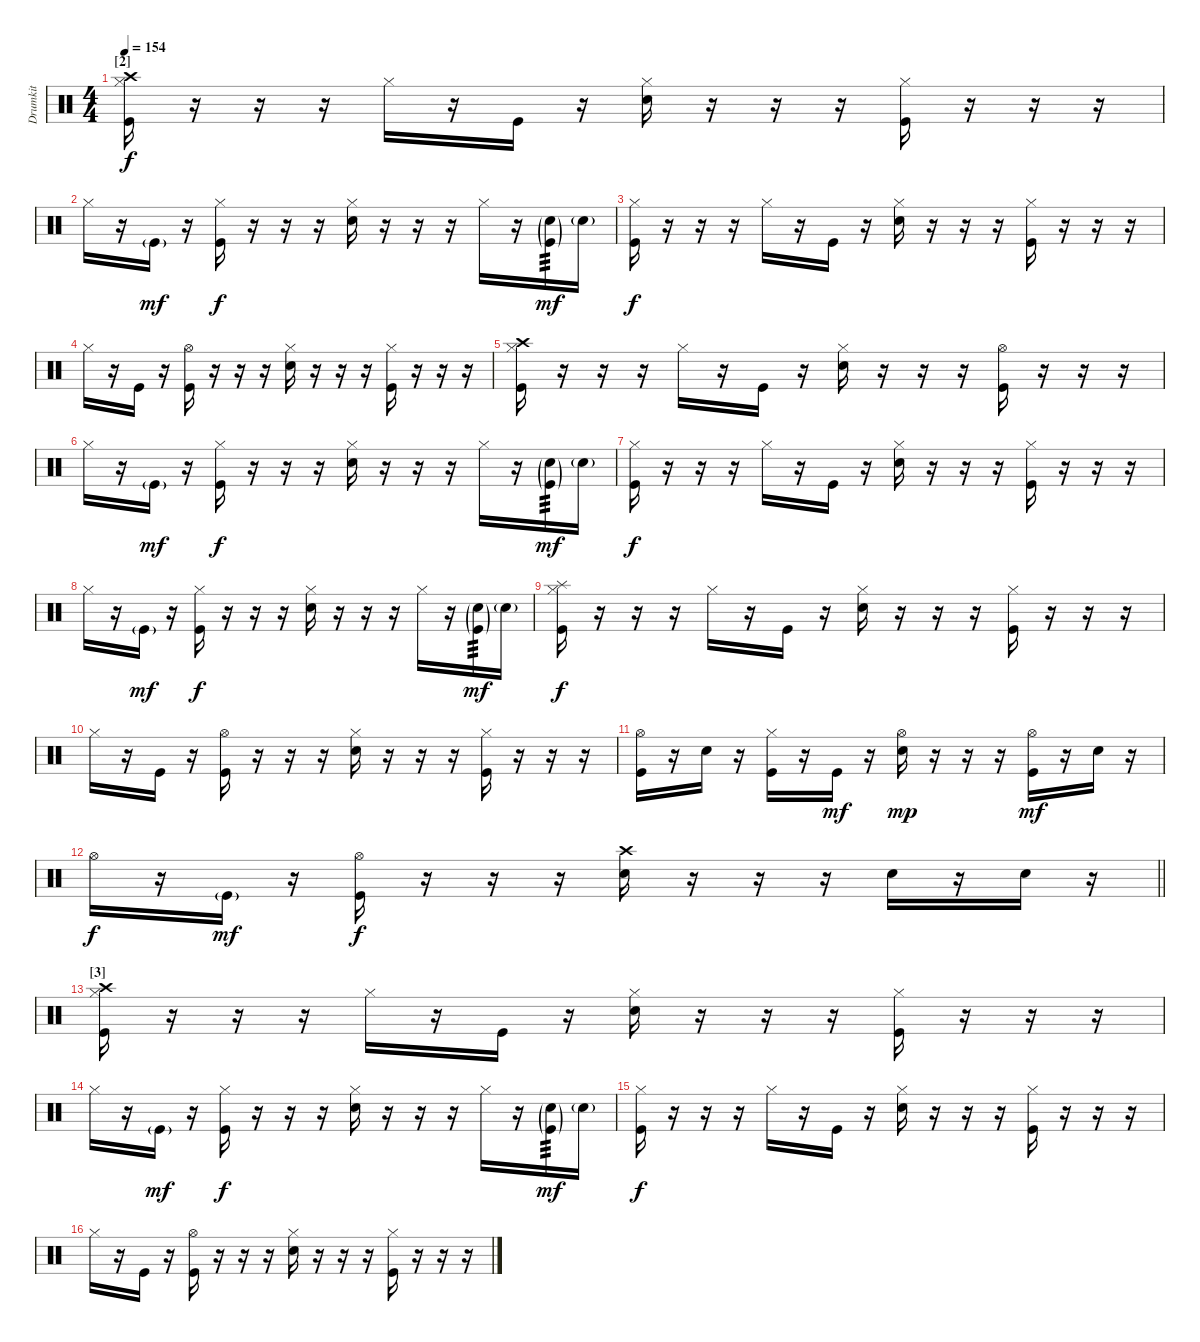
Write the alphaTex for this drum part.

\track ("Drumkit" "Drumkit") {instrument percussion}
\staff {score}
\articulation defaults
\ts (4 4)
\section ("" "[2]")
\tempo 154
\clef neutral
\ks c
("Crash high (hit)" "Hi-Hat (closed)" "Kick (hit)").16{dy f} r.16 r.16 r.16 "Hi-Hat (closed)".16 r.16 "Kick (hit)".16 r.16 ("Hi-Hat (closed)" "Snare (hit) 2").16 r.16 r.16 r.16 ("Hi-Hat (closed)" "Kick (hit)").16 r.16 r.16 r.16 |
"Hi-Hat (closed)".16 r.16 "Kick (hit)"{g}.16{dy mf} r.16 ("Hi-Hat (closed)" "Kick (hit)").16{dy f} r.16 r.16 r.16 ("Hi-Hat (closed)" "Snare (hit) 2").16 r.16 r.16 r.16 "Hi-Hat (closed)".16 r.16 ("Snare (hit) 2"{g} "Kick (hit)"{g}).16{tp 3 dy mf} "Snare (hit) 2"{g}.16 |
("Hi-Hat (closed)" "Kick (hit)").16{dy f} r.16 r.16 r.16 "Hi-Hat (closed)".16 r.16 "Kick (hit)".16 r.16 ("Hi-Hat (closed)" "Snare (hit) 2").16 r.16 r.16 r.16 ("Hi-Hat (closed)" "Kick (hit)").16 r.16 r.16 r.16 |
"Hi-Hat (closed)".16 r.16 "Kick (hit)".16 r.16 ("Hi-Hat (open)" "Kick (hit)").16 r.16 r.16 r.16 ("Hi-Hat (closed)" "Snare (hit) 2").16 r.16 r.16 r.16 ("Hi-Hat (closed)" "Kick (hit)").16 r.16 r.16 r.16 |
("Crash high (hit)" "Hi-Hat (closed)" "Kick (hit)").16 r.16 r.16 r.16 "Hi-Hat (closed)".16 r.16 "Kick (hit)".16 r.16 ("Hi-Hat (closed)" "Snare (hit) 2").16 r.16 r.16 r.16 ("Hi-Hat (open)" "Kick (hit)").16 r.16 r.16 r.16 |
"Hi-Hat (closed)".16 r.16 "Kick (hit)"{g}.16{dy mf} r.16 ("Hi-Hat (closed)" "Kick (hit)").16{dy f} r.16 r.16 r.16 ("Hi-Hat (closed)" "Snare (hit) 2").16 r.16 r.16 r.16 "Hi-Hat (closed)".16 r.16 ("Snare (hit) 2"{g} "Kick (hit)"{g}).16{tp 3 dy mf} "Snare (hit) 2"{g}.16 |
("Hi-Hat (closed)" "Kick (hit)").16{dy f} r.16 r.16 r.16 "Hi-Hat (closed)".16 r.16 "Kick (hit)".16 r.16 ("Hi-Hat (closed)" "Snare (hit) 2").16 r.16 r.16 r.16 ("Hi-Hat (closed)" "Kick (hit)").16 r.16 r.16 r.16 |
"Hi-Hat (closed)".16 r.16 "Kick (hit)"{g}.16{dy mf} r.16 ("Hi-Hat (closed)" "Kick (hit)").16{dy f} r.16 r.16 r.16 ("Hi-Hat (closed)" "Snare (hit) 2").16 r.16 r.16 r.16 "Hi-Hat (closed)".16 r.16 ("Snare (hit) 2"{g} "Kick (hit)"{g}).16{tp 3 dy mf} "Snare (hit) 2"{g}.16 |
("Splash (hit)" "Hi-Hat (closed)" "Kick (hit)").16{dy f} r.16 r.16 r.16 "Hi-Hat (closed)".16 r.16 "Kick (hit)".16 r.16 ("Hi-Hat (closed)" "Snare (hit) 2").16 r.16 r.16 r.16 ("Hi-Hat (closed)" "Kick (hit)").16 r.16 r.16 r.16 |
"Hi-Hat (closed)".16 r.16 "Kick (hit)".16 r.16 ("Hi-Hat (open)" "Kick (hit)").16 r.16 r.16 r.16 ("Hi-Hat (closed)" "Snare (hit) 2").16 r.16 r.16 r.16 ("Hi-Hat (closed)" "Kick (hit)").16 r.16 r.16 r.16 |
("Hi-Hat (open)" "Kick (hit)").16 r.16 "Snare (hit) 2".16 r.16 ("Hi-Hat (closed)" "Kick (hit)").16 r.16 "Kick (hit)".16{dy mf} r.16 ("Hi-Hat (open)" "Snare (hit) 2").16{dy mp} r.16 r.16 r.16 ("Hi-Hat (open)" "Kick (hit)").16{dy mf} r.16 "Snare (hit) 2".16 r.16 |
\barLineRight lightlight "Hi-Hat (open)".16{dy f}
r.16 "Kick (hit)"{g}.16{dy mf} r.16 ("Hi-Hat (open)" "Kick (hit)").16{dy f} r.16 r.16 r.16 ("Crash high (hit)" "Snare (hit) 2").16 r.16 r.16 r.16 "Snare (hit) 2".16 r.16 "Snare (hit) 2".16 r.16 |
\section ("" "[3]")
("Crash high (hit)" "Hi-Hat (closed)" "Kick (hit)").16 r.16 r.16 r.16 "Hi-Hat (closed)".16 r.16 "Kick (hit)".16 r.16 ("Hi-Hat (closed)" "Snare (hit) 2").16 r.16 r.16 r.16 ("Hi-Hat (closed)" "Kick (hit)").16 r.16 r.16 r.16 |
"Hi-Hat (closed)".16 r.16 "Kick (hit)"{g}.16{dy mf} r.16 ("Hi-Hat (closed)" "Kick (hit)").16{dy f} r.16 r.16 r.16 ("Hi-Hat (closed)" "Snare (hit) 2").16 r.16 r.16 r.16 "Hi-Hat (closed)".16 r.16 ("Snare (hit) 2"{g} "Kick (hit)"{g}).16{tp 3 dy mf} "Snare (hit) 2"{g}.16 |
("Hi-Hat (closed)" "Kick (hit)").16{dy f} r.16 r.16 r.16 "Hi-Hat (closed)".16 r.16 "Kick (hit)".16 r.16 ("Hi-Hat (closed)" "Snare (hit) 2").16 r.16 r.16 r.16 ("Hi-Hat (closed)" "Kick (hit)").16 r.16 r.16 r.16 |
"Hi-Hat (closed)".16 r.16 "Kick (hit)".16 r.16 ("Hi-Hat (open)" "Kick (hit)").16 r.16 r.16 r.16 ("Hi-Hat (closed)" "Snare (hit) 2").16 r.16 r.16 r.16 ("Hi-Hat (closed)" "Kick (hit)").16 r.16 r.16 r.16
